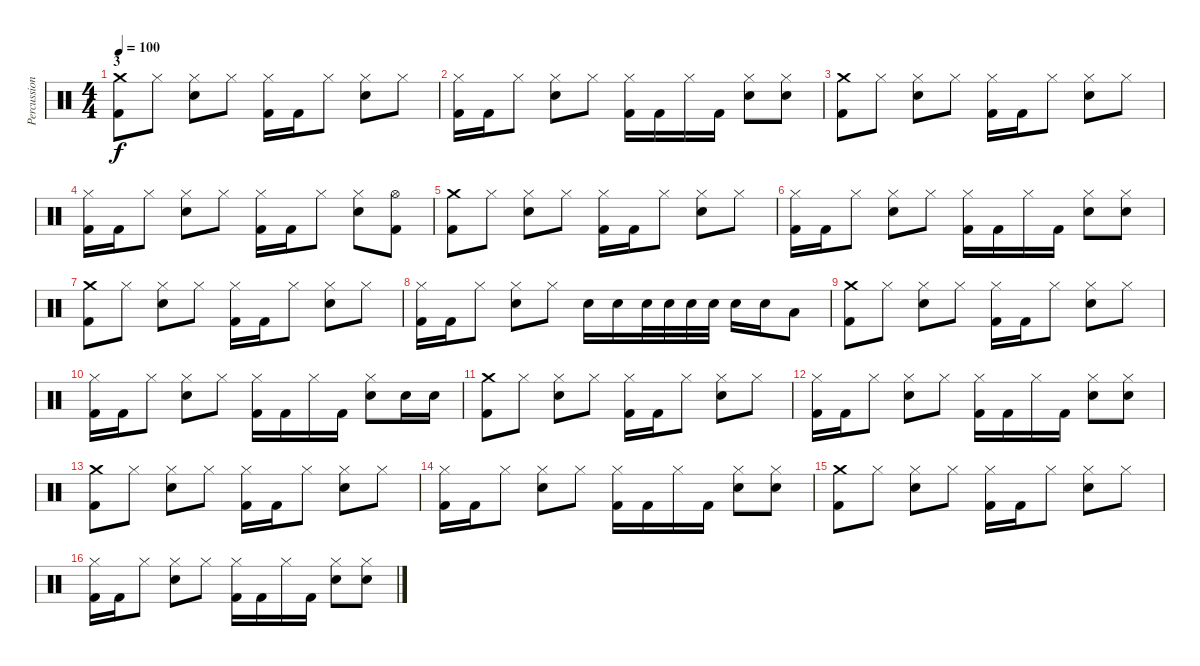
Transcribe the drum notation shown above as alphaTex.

\track ("Percussion" "Percussion") {instrument percussion}
\staff {score}
\articulation defaults
\ts (4 4)
\section ("" "3")
\tempo 100
\clef neutral
\ks c
("Crash medium (hit)" "Kick (hit) 2").8{dy f} "Hi-Hat (closed)".8 ("Hi-Hat (closed)" "Electric Snare (hit)").8 "Hi-Hat (closed)".8 ("Hi-Hat (closed)" "Kick (hit) 2").16 "Kick (hit) 2".16 "Hi-Hat (closed)".8 ("Hi-Hat (closed)" "Electric Snare (hit)").8 "Hi-Hat (closed)".8 |
("Hi-Hat (closed)" "Kick (hit) 2").16 "Kick (hit) 2".16 "Hi-Hat (closed)".8 ("Hi-Hat (closed)" "Electric Snare (hit)").8 "Hi-Hat (closed)".8 ("Hi-Hat (closed)" "Kick (hit) 2").16 "Kick (hit) 2".16 "Hi-Hat (closed)".16 "Kick (hit) 2".16 ("Hi-Hat (closed)" "Electric Snare (hit)").8 ("Hi-Hat (closed)" "Electric Snare (hit)").8 |
("Crash medium (hit)" "Kick (hit) 2").8 "Hi-Hat (closed)".8 ("Hi-Hat (closed)" "Electric Snare (hit)").8 "Hi-Hat (closed)".8 ("Hi-Hat (closed)" "Kick (hit) 2").16 "Kick (hit) 2".16 "Hi-Hat (closed)".8 ("Hi-Hat (closed)" "Electric Snare (hit)").8 "Hi-Hat (closed)".8 |
("Hi-Hat (closed)" "Kick (hit) 2").16 "Kick (hit) 2".16 "Hi-Hat (closed)".8 ("Hi-Hat (closed)" "Electric Snare (hit)").8 "Hi-Hat (closed)".8 ("Hi-Hat (closed)" "Kick (hit) 2").16 "Kick (hit) 2".16 "Hi-Hat (closed)".8 ("Hi-Hat (closed)" "Electric Snare (hit)").8 ("Hi-Hat (open)" "Kick (hit) 2").8 |
("Crash medium (hit)" "Kick (hit) 2").8 "Hi-Hat (closed)".8 ("Hi-Hat (closed)" "Electric Snare (hit)").8 "Hi-Hat (closed)".8 ("Hi-Hat (closed)" "Kick (hit) 2").16 "Kick (hit) 2".16 "Hi-Hat (closed)".8 ("Hi-Hat (closed)" "Electric Snare (hit)").8 "Hi-Hat (closed)".8 |
("Hi-Hat (closed)" "Kick (hit) 2").16 "Kick (hit) 2".16 "Hi-Hat (closed)".8 ("Hi-Hat (closed)" "Electric Snare (hit)").8 "Hi-Hat (closed)".8 ("Hi-Hat (closed)" "Kick (hit) 2").16 "Kick (hit) 2".16 "Hi-Hat (closed)".16 "Kick (hit) 2".16 ("Hi-Hat (closed)" "Electric Snare (hit)").8 ("Hi-Hat (closed)" "Electric Snare (hit)").8 |
("Crash medium (hit)" "Kick (hit) 2").8 "Hi-Hat (closed)".8 ("Hi-Hat (closed)" "Electric Snare (hit)").8 "Hi-Hat (closed)".8 ("Hi-Hat (closed)" "Kick (hit) 2").16 "Kick (hit) 2".16 "Hi-Hat (closed)".8 ("Hi-Hat (closed)" "Electric Snare (hit)").8 "Hi-Hat (closed)".8 |
("Hi-Hat (closed)" "Kick (hit) 2").16 "Kick (hit) 2".16 "Hi-Hat (closed)".8 ("Hi-Hat (closed)" "Electric Snare (hit)").8 "Hi-Hat (closed)".8 "Electric Snare (hit)".16 "Electric Snare (hit)".16 "Electric Snare (hit)".32 "Electric Snare (hit)".32 "Electric Snare (hit)".32 "Electric Snare (hit)".32 "Electric Snare (hit)".16 "Electric Snare (hit)".16 "Low Tom (hit)".8 |
("Crash medium (hit)" "Kick (hit) 2").8 "Hi-Hat (closed)".8 ("Hi-Hat (closed)" "Electric Snare (hit)").8 "Hi-Hat (closed)".8 ("Hi-Hat (closed)" "Kick (hit) 2").16 "Kick (hit) 2".16 "Hi-Hat (closed)".8 ("Hi-Hat (closed)" "Electric Snare (hit)").8 "Hi-Hat (closed)".8 |
("Hi-Hat (closed)" "Kick (hit) 2").16 "Kick (hit) 2".16 "Hi-Hat (closed)".8 ("Hi-Hat (closed)" "Electric Snare (hit)").8 "Hi-Hat (closed)".8 ("Hi-Hat (closed)" "Kick (hit) 2").16 "Kick (hit) 2".16 "Hi-Hat (closed)".16 "Kick (hit) 2".16 ("Hi-Hat (closed)" "Electric Snare (hit)").8 "Electric Snare (hit)".16 "Electric Snare (hit)".16 |
("Crash medium (hit)" "Kick (hit) 2").8 "Hi-Hat (closed)".8 ("Hi-Hat (closed)" "Electric Snare (hit)").8 "Hi-Hat (closed)".8 ("Hi-Hat (closed)" "Kick (hit) 2").16 "Kick (hit) 2".16 "Hi-Hat (closed)".8 ("Hi-Hat (closed)" "Electric Snare (hit)").8 "Hi-Hat (closed)".8 |
("Hi-Hat (closed)" "Kick (hit) 2").16 "Kick (hit) 2".16 "Hi-Hat (closed)".8 ("Hi-Hat (closed)" "Electric Snare (hit)").8 "Hi-Hat (closed)".8 ("Hi-Hat (closed)" "Kick (hit) 2").16 "Kick (hit) 2".16 "Hi-Hat (closed)".16 "Kick (hit) 2".16 ("Hi-Hat (closed)" "Electric Snare (hit)").8 ("Hi-Hat (closed)" "Electric Snare (hit)").8 |
("Crash medium (hit)" "Kick (hit) 2").8 "Hi-Hat (closed)".8 ("Hi-Hat (closed)" "Electric Snare (hit)").8 "Hi-Hat (closed)".8 ("Hi-Hat (closed)" "Kick (hit) 2").16 "Kick (hit) 2".16 "Hi-Hat (closed)".8 ("Hi-Hat (closed)" "Electric Snare (hit)").8 "Hi-Hat (closed)".8 |
("Hi-Hat (closed)" "Kick (hit) 2").16 "Kick (hit) 2".16 "Hi-Hat (closed)".8 ("Hi-Hat (closed)" "Electric Snare (hit)").8 "Hi-Hat (closed)".8 ("Hi-Hat (closed)" "Kick (hit) 2").16 "Kick (hit) 2".16 "Hi-Hat (closed)".16 "Kick (hit) 2".16 ("Hi-Hat (closed)" "Electric Snare (hit)").8 ("Hi-Hat (closed)" "Electric Snare (hit)").8 |
("Crash medium (hit)" "Kick (hit) 2").8 "Hi-Hat (closed)".8 ("Hi-Hat (closed)" "Electric Snare (hit)").8 "Hi-Hat (closed)".8 ("Hi-Hat (closed)" "Kick (hit) 2").16 "Kick (hit) 2".16 "Hi-Hat (closed)".8 ("Hi-Hat (closed)" "Electric Snare (hit)").8 "Hi-Hat (closed)".8 |
("Hi-Hat (closed)" "Kick (hit) 2").16 "Kick (hit) 2".16 "Hi-Hat (closed)".8 ("Hi-Hat (closed)" "Electric Snare (hit)").8 "Hi-Hat (closed)".8 ("Hi-Hat (closed)" "Kick (hit) 2").16 "Kick (hit) 2".16 "Hi-Hat (closed)".16 "Kick (hit) 2".16 ("Hi-Hat (closed)" "Electric Snare (hit)").8 ("Hi-Hat (closed)" "Electric Snare (hit)").8
